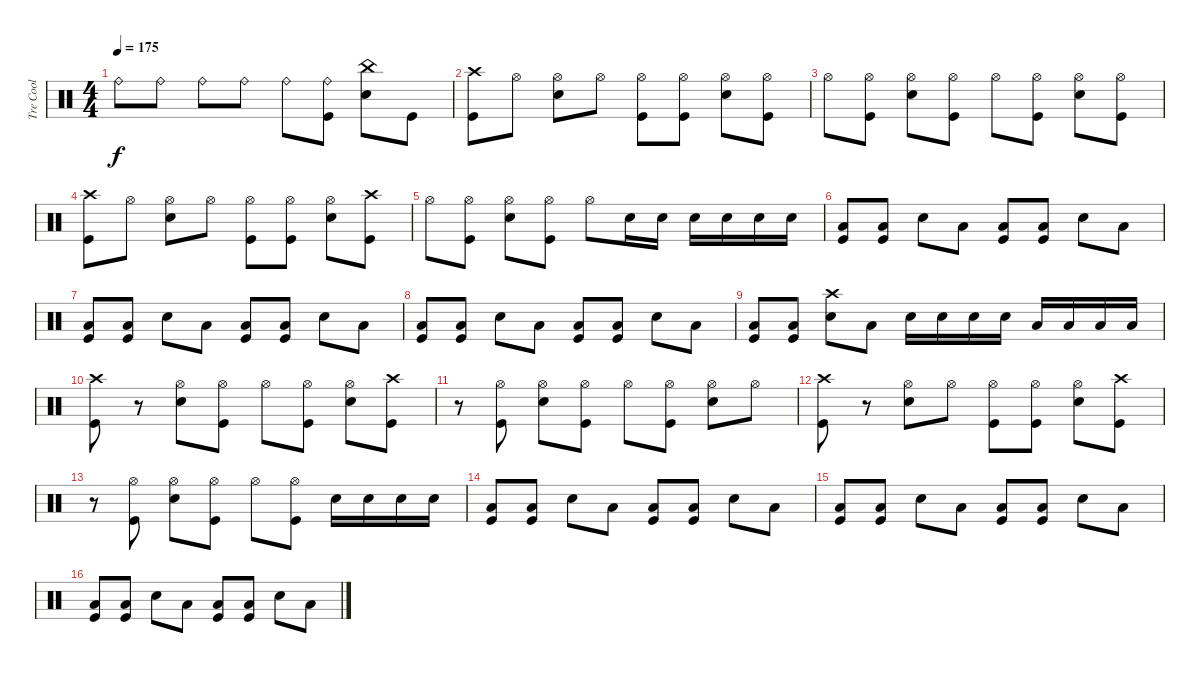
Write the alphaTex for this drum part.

\track ("Tre Cool" "Tre Cool") {instrument percussion}
\staff {score}
\articulation defaults
\ts (4 4)
\tempo 175
\clef neutral
\ks c "Ride (bell)".8{dy f} "Ride (bell)".8 "Ride (bell)".8 "Ride (bell)".8 "Ride (bell)".8
("Kick (hit)" "Ride (bell)").8 ("Snare (hit) 2" "China (hit)").8 "Kick (hit)".8 |
("Kick (hit)" "Crash high (hit)").8 "Hi-Hat (open)".8 ("Snare (hit) 2" "Hi-Hat (open)").8 "Hi-Hat (open)".8 ("Kick (hit)" "Hi-Hat (open)").8 ("Kick (hit)" "Hi-Hat (open)").8 ("Snare (hit) 2" "Hi-Hat (open)").8 ("Kick (hit)" "Hi-Hat (open)").8 |
"Hi-Hat (open)".8 ("Kick (hit)" "Hi-Hat (open)").8 ("Snare (hit) 2" "Hi-Hat (open)").8 ("Kick (hit)" "Hi-Hat (open)").8 "Hi-Hat (open)".8 ("Kick (hit)" "Hi-Hat (open)").8 ("Snare (hit) 2" "Hi-Hat (open)").8 ("Kick (hit)" "Hi-Hat (open)").8 |
("Kick (hit)" "Crash high (hit)").8 "Hi-Hat (open)".8 ("Snare (hit) 2" "Hi-Hat (open)").8 "Hi-Hat (open)".8 ("Kick (hit)" "Hi-Hat (open)").8 ("Kick (hit)" "Hi-Hat (open)").8 ("Snare (hit) 2" "Hi-Hat (open)").8 ("Kick (hit)" "Crash high (hit)").8 |
"Hi-Hat (open)".8 ("Kick (hit)" "Hi-Hat (open)").8 ("Snare (hit) 2" "Hi-Hat (open)").8 ("Kick (hit)" "Hi-Hat (open)").8 "Hi-Hat (open)".8 "Snare (hit) 2".16 "Snare (hit) 2".16 "Snare (hit) 2".16 "Snare (hit) 2".16 "Snare (hit) 2".16 "Snare (hit) 2".16 |
("Kick (hit)" "Low Floor Tom (hit)").8 ("Kick (hit)" "Low Floor Tom (hit)").8 "Snare (hit) 2".8 "Low Floor Tom (hit)".8 ("Kick (hit)" "Low Floor Tom (hit)").8 ("Kick (hit)" "Low Floor Tom (hit)").8 "Snare (hit) 2".8 "Low Floor Tom (hit)".8 |
("Kick (hit)" "Low Floor Tom (hit)").8 ("Kick (hit)" "Low Floor Tom (hit)").8 "Snare (hit) 2".8 "Low Floor Tom (hit)".8 ("Kick (hit)" "Low Floor Tom (hit)").8 ("Kick (hit)" "Low Floor Tom (hit)").8 "Snare (hit) 2".8 "Low Floor Tom (hit)".8 |
("Kick (hit)" "Low Floor Tom (hit)").8 ("Kick (hit)" "Low Floor Tom (hit)").8 "Snare (hit) 2".8 "Low Floor Tom (hit)".8 ("Kick (hit)" "Low Floor Tom (hit)").8 ("Kick (hit)" "Low Floor Tom (hit)").8 "Snare (hit) 2".8 "Low Floor Tom (hit)".8 |
("Kick (hit)" "Low Floor Tom (hit)").8 ("Kick (hit)" "Low Floor Tom (hit)").8 ("Snare (hit) 2" "Crash high (hit)").8 "Low Floor Tom (hit)".8 "Snare (hit) 2".16 "Snare (hit) 2".16 "Snare (hit) 2".16 "Snare (hit) 2".16 "Low Floor Tom (hit)".16 "Low Floor Tom (hit)".16 "Low Floor Tom (hit)".16 "Low Floor Tom (hit)".16 |
("Kick (hit)" "Crash high (hit)").8 r.8 ("Snare (hit) 2" "Hi-Hat (open)").8 ("Kick (hit)" "Hi-Hat (open)").8 "Hi-Hat (open)".8 ("Kick (hit)" "Hi-Hat (open)").8 ("Snare (hit) 2" "Hi-Hat (open)").8 ("Kick (hit)" "Crash high (hit)").8 |
r.8 ("Kick (hit)" "Hi-Hat (open)").8 ("Snare (hit) 2" "Hi-Hat (open)").8 ("Kick (hit)" "Hi-Hat (open)").8 "Hi-Hat (open)".8 ("Kick (hit)" "Hi-Hat (open)").8 ("Snare (hit) 2" "Hi-Hat (open)").8 "Hi-Hat (open)".8 |
("Kick (hit)" "Crash high (hit)").8 r.8 ("Snare (hit) 2" "Hi-Hat (open)").8 "Hi-Hat (open)".8 ("Kick (hit)" "Hi-Hat (open)").8 ("Kick (hit)" "Hi-Hat (open)").8 ("Snare (hit) 2" "Hi-Hat (open)").8 ("Kick (hit)" "Crash high (hit)").8 |
r.8 ("Kick (hit)" "Hi-Hat (open)").8 ("Snare (hit) 2" "Hi-Hat (open)").8 ("Kick (hit)" "Hi-Hat (open)").8 "Hi-Hat (open)".8 ("Kick (hit)" "Hi-Hat (open)").8 "Snare (hit) 2".16 "Snare (hit) 2".16 "Snare (hit) 2".16 "Snare (hit) 2".16 |
("Kick (hit)" "Low Floor Tom (hit)").8 ("Kick (hit)" "Low Floor Tom (hit)").8 "Snare (hit) 2".8 "Low Floor Tom (hit)".8 ("Kick (hit)" "Low Floor Tom (hit)").8 ("Kick (hit)" "Low Floor Tom (hit)").8 "Snare (hit) 2".8 "Low Floor Tom (hit)".8 |
("Kick (hit)" "Low Floor Tom (hit)").8 ("Kick (hit)" "Low Floor Tom (hit)").8 "Snare (hit) 2".8 "Low Floor Tom (hit)".8 ("Kick (hit)" "Low Floor Tom (hit)").8 ("Kick (hit)" "Low Floor Tom (hit)").8 "Snare (hit) 2".8 "Low Floor Tom (hit)".8 |
("Kick (hit)" "Low Floor Tom (hit)").8 ("Kick (hit)" "Low Floor Tom (hit)").8 "Snare (hit) 2".8 "Low Floor Tom (hit)".8 ("Kick (hit)" "Low Floor Tom (hit)").8 ("Kick (hit)" "Low Floor Tom (hit)").8 "Snare (hit) 2".8 "Low Floor Tom (hit)".8
